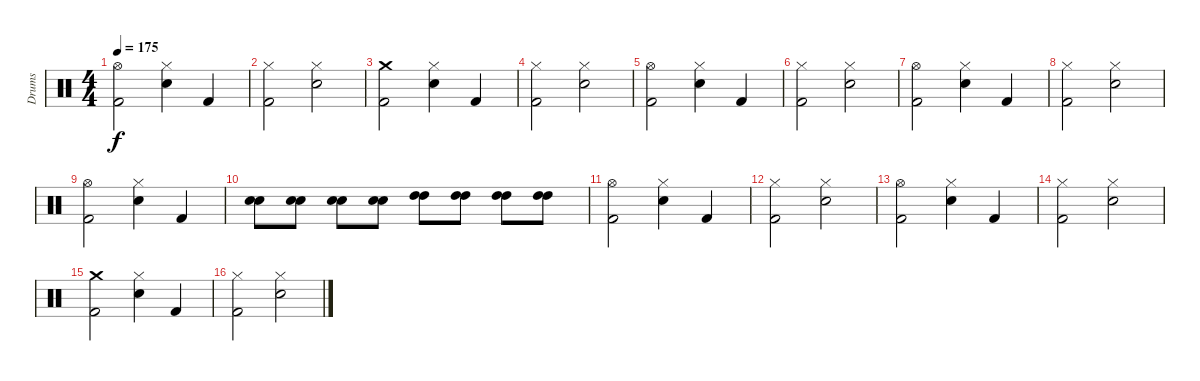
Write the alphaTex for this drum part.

\track ("Drums" "Drums") {instrument percussion}
\staff {score}
\articulation defaults
\ts (4 4)
\tempo 175
\clef neutral
\ks c
("Hi-Hat (open)" "Kick (hit) 2").2{dy f} ("Hi-Hat (closed)" "Snare (hit) 2").4 "Kick (hit) 2".4 |
("Hi-Hat (closed)" "Kick (hit) 2").2 ("Hi-Hat (closed)" "Snare (hit) 2").2 |
("Crash medium (hit)" "Kick (hit) 2").2 ("Hi-Hat (closed)" "Snare (hit) 2").4 "Kick (hit) 2".4 |
("Hi-Hat (closed)" "Kick (hit) 2").2 ("Hi-Hat (closed)" "Snare (hit) 2").2 |
("Hi-Hat (open)" "Kick (hit) 2").2 ("Hi-Hat (closed)" "Snare (hit) 2").4 "Kick (hit) 2".4 |
("Hi-Hat (closed)" "Kick (hit) 2").2 ("Hi-Hat (closed)" "Snare (hit) 2").2 |
("Hi-Hat (open)" "Kick (hit) 2").2 ("Hi-Hat (closed)" "Snare (hit) 2").4 "Kick (hit) 2".4 |
("Hi-Hat (closed)" "Kick (hit) 2").2 ("Hi-Hat (closed)" "Snare (hit) 2").2 |
("Hi-Hat (open)" "Kick (hit) 2").2 ("Hi-Hat (closed)" "Snare (hit) 2").4 "Kick (hit) 2".4 |
("Snare (hit) 2" "Snare (hit) 2").8 ("Snare (hit) 2" "Snare (hit) 2").8 ("Snare (hit) 2" "Snare (hit) 2").8 ("Snare (hit) 2" "Snare (hit) 2").8 ("High Tom (hit)" "High Tom (hit)").8 ("High Tom (hit)" "High Tom (hit)").8 ("High Tom (hit)" "High Tom (hit)").8 ("High Tom (hit)" "High Tom (hit)").8 |
("Hi-Hat (open)" "Kick (hit) 2").2 ("Hi-Hat (closed)" "Snare (hit) 2").4 "Kick (hit) 2".4 |
("Hi-Hat (closed)" "Kick (hit) 2").2 ("Hi-Hat (closed)" "Snare (hit) 2").2 |
("Hi-Hat (open)" "Kick (hit) 2").2 ("Hi-Hat (closed)" "Snare (hit) 2").4 "Kick (hit) 2".4 |
("Hi-Hat (closed)" "Kick (hit) 2").2 ("Hi-Hat (closed)" "Snare (hit) 2").2 |
("Crash medium (hit)" "Kick (hit) 2").2 ("Hi-Hat (closed)" "Snare (hit) 2").4 "Kick (hit) 2".4 |
("Hi-Hat (closed)" "Kick (hit) 2").2 ("Hi-Hat (closed)" "Snare (hit) 2").2
